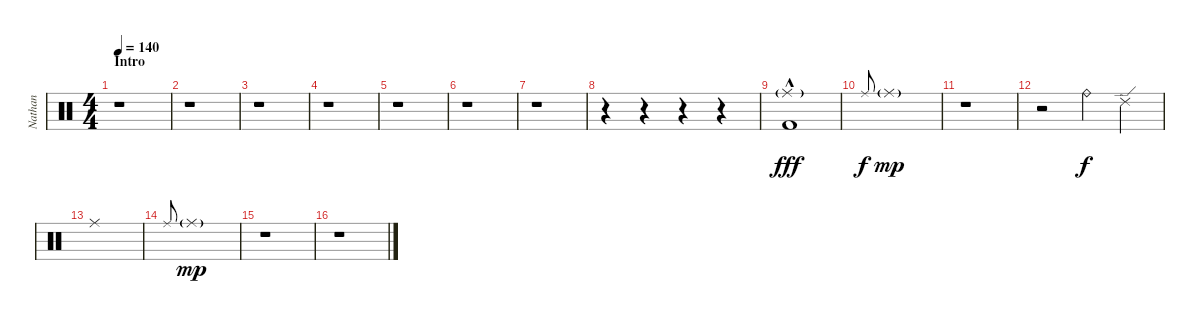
\track ("Nathan" "Nathan") {instrument percussion}
\staff {score}
\articulation defaults
\ts (4 4)
\section ("" "Intro")
\tempo 140
\clef neutral
\ks c
r.1{dy fff} |
r.1 |
r.1 |
r.1 |
r.1 |
r.1 |
r.1 |
r.4 r.4 r.4 r.4 |
("Ride (middle)"{g} "Kick (hit) 2"{hac}).1 |
"Ride (middle)".8{gr onbeat dy f} "Ride (middle)"{g}.1{dy mp} |
r.1 |
r.2 "Ride (bell)".4{dy f} "Ride (edge) 2".4 |
"Ride (middle)".1 |
"Ride (middle)".8{gr onbeat} "Ride (middle)"{g}.1{dy mp} |
r.1 |
r.1
